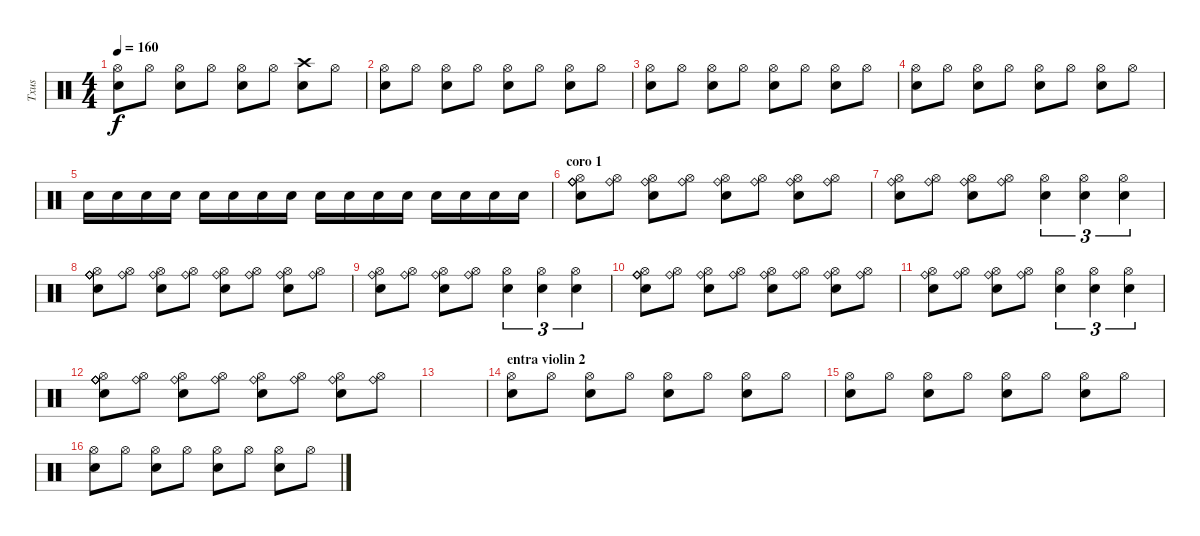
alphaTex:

\track ("Txus" "Txus") {instrument percussion}
\staff {score}
\articulation defaults
\ts (4 4)
\tempo 160
\clef neutral
\ks c
("Snare (hit) 2" "Hi-Hat (open)").8{dy f} "Hi-Hat (open)".8 ("Snare (hit) 2" "Hi-Hat (open)").8 "Hi-Hat (open)".8 ("Snare (hit) 2" "Hi-Hat (open)").8 "Hi-Hat (open)".8 ("Snare (hit) 2" "Crash high (hit)").8 "Hi-Hat (open)".8 |
("Snare (hit) 2" "Hi-Hat (open)").8 "Hi-Hat (open)".8 ("Snare (hit) 2" "Hi-Hat (open)").8 "Hi-Hat (open)".8 ("Snare (hit) 2" "Hi-Hat (open)").8 "Hi-Hat (open)".8 ("Snare (hit) 2" "Hi-Hat (open)").8 "Hi-Hat (open)".8 |
("Snare (hit) 2" "Hi-Hat (open)").8 "Hi-Hat (open)".8 ("Snare (hit) 2" "Hi-Hat (open)").8 "Hi-Hat (open)".8 ("Snare (hit) 2" "Hi-Hat (open)").8 "Hi-Hat (open)".8 ("Snare (hit) 2" "Hi-Hat (open)").8 "Hi-Hat (open)".8 |
("Snare (hit) 2" "Hi-Hat (open)").8 "Hi-Hat (open)".8 ("Snare (hit) 2" "Hi-Hat (open)").8 "Hi-Hat (open)".8 ("Snare (hit) 2" "Hi-Hat (open)").8 "Hi-Hat (open)".8 ("Snare (hit) 2" "Hi-Hat (open)").8 "Hi-Hat (open)".8 |
"Snare (hit) 2".16 "Snare (hit) 2".16 "Snare (hit) 2".16 "Snare (hit) 2".16 "Snare (hit) 2".16 "Snare (hit) 2".16 "Snare (hit) 2".16 "Snare (hit) 2".16 "Snare (hit) 2".16 "Snare (hit) 2".16 "Snare (hit) 2".16 "Snare (hit) 2".16 "Snare (hit) 2".16 "Snare (hit) 2".16 "Snare (hit) 2".16 "Snare (hit) 2".16 |
\section ("" "coro 1")
("Snare (hit) 2" "Hi-Hat (open)" "Ride (bell)" "Ride (bell)" "Ride (bell)").8 ("Hi-Hat (open)" "Ride (bell)").8 ("Snare (hit) 2" "Hi-Hat (open)" "Ride (bell)").8 ("Hi-Hat (open)" "Ride (bell)").8 ("Snare (hit) 2" "Hi-Hat (open)" "Ride (bell)").8 ("Hi-Hat (open)" "Ride (bell)").8 ("Snare (hit) 2" "Hi-Hat (open)" "Ride (bell)").8 ("Hi-Hat (open)" "Ride (bell)").8 |
("Snare (hit) 2" "Ride (bell)" "Hi-Hat (open)").8 ("Ride (bell)" "Hi-Hat (open)").8 ("Snare (hit) 2" "Ride (bell)" "Hi-Hat (open)").8 ("Ride (bell)" "Hi-Hat (open)").8 ("Snare (hit) 2" "Hi-Hat (open)").4{tu (3 2)} ("Snare (hit) 2" "Hi-Hat (open)").4{tu (3 2)} ("Snare (hit) 2" "Hi-Hat (open)").4{tu (3 2)} |
("Snare (hit) 2" "Hi-Hat (open)" "Ride (bell)" "Ride (bell)" "Ride (bell)").8 ("Hi-Hat (open)" "Ride (bell)").8 ("Snare (hit) 2" "Hi-Hat (open)" "Ride (bell)").8 ("Hi-Hat (open)" "Ride (bell)").8 ("Snare (hit) 2" "Hi-Hat (open)" "Ride (bell)").8 ("Hi-Hat (open)" "Ride (bell)").8 ("Snare (hit) 2" "Hi-Hat (open)" "Ride (bell)").8 ("Hi-Hat (open)" "Ride (bell)").8 |
("Snare (hit) 2" "Ride (bell)" "Hi-Hat (open)").8 ("Ride (bell)" "Hi-Hat (open)").8 ("Snare (hit) 2" "Ride (bell)" "Hi-Hat (open)").8 ("Ride (bell)" "Hi-Hat (open)").8 ("Snare (hit) 2" "Hi-Hat (open)").4{tu (3 2)} ("Snare (hit) 2" "Hi-Hat (open)").4{tu (3 2)} ("Snare (hit) 2" "Hi-Hat (open)").4{tu (3 2)} |
("Snare (hit) 2" "Hi-Hat (open)" "Ride (bell)" "Ride (bell)" "Ride (bell)").8 ("Hi-Hat (open)" "Ride (bell)").8 ("Snare (hit) 2" "Hi-Hat (open)" "Ride (bell)").8 ("Hi-Hat (open)" "Ride (bell)").8 ("Snare (hit) 2" "Hi-Hat (open)" "Ride (bell)").8 ("Hi-Hat (open)" "Ride (bell)").8 ("Snare (hit) 2" "Hi-Hat (open)" "Ride (bell)").8 ("Hi-Hat (open)" "Ride (bell)").8 |
("Snare (hit) 2" "Ride (bell)" "Hi-Hat (open)").8 ("Ride (bell)" "Hi-Hat (open)").8 ("Snare (hit) 2" "Ride (bell)" "Hi-Hat (open)").8 ("Ride (bell)" "Hi-Hat (open)").8 ("Snare (hit) 2" "Hi-Hat (open)").4{tu (3 2)} ("Snare (hit) 2" "Hi-Hat (open)").4{tu (3 2)} ("Snare (hit) 2" "Hi-Hat (open)").4{tu (3 2)} |
("Snare (hit) 2" "Hi-Hat (open)" "Ride (bell)" "Ride (bell)" "Ride (bell)").8 ("Hi-Hat (open)" "Ride (bell)").8 ("Snare (hit) 2" "Hi-Hat (open)" "Ride (bell)").8 ("Hi-Hat (open)" "Ride (bell)").8 ("Snare (hit) 2" "Hi-Hat (open)" "Ride (bell)").8 ("Hi-Hat (open)" "Ride (bell)").8 ("Snare (hit) 2" "Hi-Hat (open)" "Ride (bell)").8 ("Hi-Hat (open)" "Ride (bell)").8 |
|
\section ("" "entra violin 2")
("Snare (hit) 2" "Hi-Hat (open)").8 "Hi-Hat (open)".8 ("Snare (hit) 2" "Hi-Hat (open)").8 "Hi-Hat (open)".8 ("Snare (hit) 2" "Hi-Hat (open)").8 "Hi-Hat (open)".8 ("Snare (hit) 2" "Hi-Hat (open)").8 "Hi-Hat (open)".8 |
("Snare (hit) 2" "Hi-Hat (open)").8 "Hi-Hat (open)".8 ("Snare (hit) 2" "Hi-Hat (open)").8 "Hi-Hat (open)".8 ("Snare (hit) 2" "Hi-Hat (open)").8 "Hi-Hat (open)".8 ("Snare (hit) 2" "Hi-Hat (open)").8 "Hi-Hat (open)".8 |
("Snare (hit) 2" "Hi-Hat (open)").8 "Hi-Hat (open)".8 ("Snare (hit) 2" "Hi-Hat (open)").8 "Hi-Hat (open)".8 ("Snare (hit) 2" "Hi-Hat (open)").8 "Hi-Hat (open)".8 ("Snare (hit) 2" "Hi-Hat (open)").8 "Hi-Hat (open)".8
